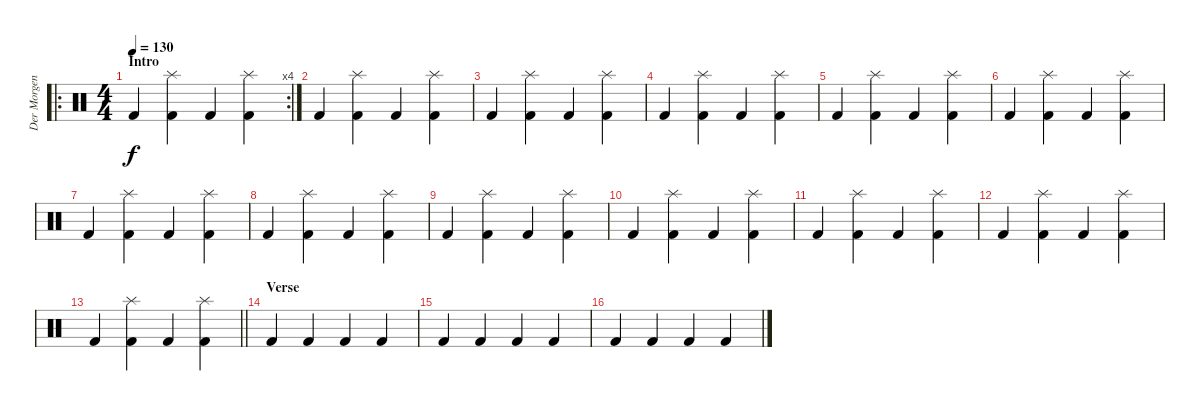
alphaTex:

\track ("Der Morgenstern" "Der Morgen") {instrument percussion}
\staff {score}
\articulation defaults
\ro
\rc 4
\ts (4 4)
\section ("" "Intro")
\tempo 130
\clef neutral
\ks c "Kick (hit) 2".4{dy f}
("Splash (hit)" "Kick (hit) 2").4 "Kick (hit) 2".4 ("Splash (hit)" "Kick (hit) 2").4 |
"Kick (hit) 2".4 ("Splash (hit)" "Kick (hit) 2").4 "Kick (hit) 2".4 ("Splash (hit)" "Kick (hit) 2").4 |
"Kick (hit) 2".4 ("Splash (hit)" "Kick (hit) 2").4 "Kick (hit) 2".4 ("Splash (hit)" "Kick (hit) 2").4 |
"Kick (hit) 2".4 ("Splash (hit)" "Kick (hit) 2").4 "Kick (hit) 2".4 ("Splash (hit)" "Kick (hit) 2").4 |
"Kick (hit) 2".4 ("Splash (hit)" "Kick (hit) 2").4 "Kick (hit) 2".4 ("Splash (hit)" "Kick (hit) 2").4 |
"Kick (hit) 2".4 ("Splash (hit)" "Kick (hit) 2").4 "Kick (hit) 2".4 ("Splash (hit)" "Kick (hit) 2").4 |
"Kick (hit) 2".4 ("Splash (hit)" "Kick (hit) 2").4 "Kick (hit) 2".4 ("Splash (hit)" "Kick (hit) 2").4 |
"Kick (hit) 2".4 ("Splash (hit)" "Kick (hit) 2").4 "Kick (hit) 2".4 ("Splash (hit)" "Kick (hit) 2").4 |
"Kick (hit) 2".4 ("Splash (hit)" "Kick (hit) 2").4 "Kick (hit) 2".4 ("Splash (hit)" "Kick (hit) 2").4 |
"Kick (hit) 2".4 ("Splash (hit)" "Kick (hit) 2").4 "Kick (hit) 2".4 ("Splash (hit)" "Kick (hit) 2").4 |
"Kick (hit) 2".4 ("Splash (hit)" "Kick (hit) 2").4 "Kick (hit) 2".4 ("Splash (hit)" "Kick (hit) 2").4 |
"Kick (hit) 2".4 ("Splash (hit)" "Kick (hit) 2").4 "Kick (hit) 2".4 ("Splash (hit)" "Kick (hit) 2").4 |
\barLineRight lightlight "Kick (hit) 2".4
("Splash (hit)" "Kick (hit) 2").4 "Kick (hit) 2".4 ("Splash (hit)" "Kick (hit) 2").4 |
\section ("" "Verse")
"Kick (hit) 2".4 "Kick (hit) 2".4 "Kick (hit) 2".4 "Kick (hit) 2".4 |
"Kick (hit) 2".4 "Kick (hit) 2".4 "Kick (hit) 2".4 "Kick (hit) 2".4 |
"Kick (hit) 2".4 "Kick (hit) 2".4 "Kick (hit) 2".4 "Kick (hit) 2".4
